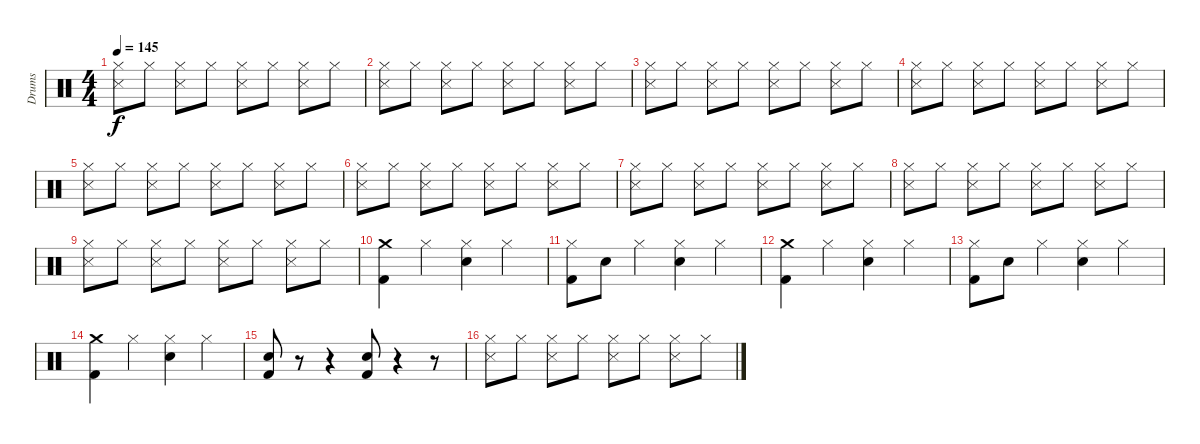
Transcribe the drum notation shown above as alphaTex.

\track ("Drums" "Drums") {instrument percussion}
\staff {score}
\articulation defaults
\ts (4 4)
\tempo 145
\clef neutral
\ks c
("Hi-Hat (closed)" "Snare (side stick) 3").8{dy f} "Hi-Hat (closed)".8 ("Hi-Hat (closed)" "Snare (side stick) 3").8 "Hi-Hat (closed)".8 ("Hi-Hat (closed)" "Snare (side stick) 3").8 "Hi-Hat (closed)".8 ("Hi-Hat (closed)" "Snare (side stick) 3").8 "Hi-Hat (closed)".8 |
("Hi-Hat (closed)" "Snare (side stick) 3").8 "Hi-Hat (closed)".8 ("Hi-Hat (closed)" "Snare (side stick) 3").8 "Hi-Hat (closed)".8 ("Hi-Hat (closed)" "Snare (side stick) 3").8 "Hi-Hat (closed)".8 ("Hi-Hat (closed)" "Snare (side stick) 3").8 "Hi-Hat (closed)".8 |
("Hi-Hat (closed)" "Snare (side stick) 3").8 "Hi-Hat (closed)".8 ("Hi-Hat (closed)" "Snare (side stick) 3").8 "Hi-Hat (closed)".8 ("Hi-Hat (closed)" "Snare (side stick) 3").8 "Hi-Hat (closed)".8 ("Hi-Hat (closed)" "Snare (side stick) 3").8 "Hi-Hat (closed)".8 |
("Hi-Hat (closed)" "Snare (side stick) 3").8 "Hi-Hat (closed)".8 ("Hi-Hat (closed)" "Snare (side stick) 3").8 "Hi-Hat (closed)".8 ("Hi-Hat (closed)" "Snare (side stick) 3").8 "Hi-Hat (closed)".8 ("Hi-Hat (closed)" "Snare (side stick) 3").8 "Hi-Hat (closed)".8 |
("Hi-Hat (closed)" "Snare (side stick) 3").8 "Hi-Hat (closed)".8 ("Hi-Hat (closed)" "Snare (side stick) 3").8 "Hi-Hat (closed)".8 ("Hi-Hat (closed)" "Snare (side stick) 3").8 "Hi-Hat (closed)".8 ("Hi-Hat (closed)" "Snare (side stick) 3").8 "Hi-Hat (closed)".8 |
("Hi-Hat (closed)" "Snare (side stick) 3").8 "Hi-Hat (closed)".8 ("Hi-Hat (closed)" "Snare (side stick) 3").8 "Hi-Hat (closed)".8 ("Hi-Hat (closed)" "Snare (side stick) 3").8 "Hi-Hat (closed)".8 ("Hi-Hat (closed)" "Snare (side stick) 3").8 "Hi-Hat (closed)".8 |
("Hi-Hat (closed)" "Snare (side stick) 3").8 "Hi-Hat (closed)".8 ("Hi-Hat (closed)" "Snare (side stick) 3").8 "Hi-Hat (closed)".8 ("Hi-Hat (closed)" "Snare (side stick) 3").8 "Hi-Hat (closed)".8 ("Hi-Hat (closed)" "Snare (side stick) 3").8 "Hi-Hat (closed)".8 |
("Hi-Hat (closed)" "Snare (side stick) 3").8 "Hi-Hat (closed)".8 ("Hi-Hat (closed)" "Snare (side stick) 3").8 "Hi-Hat (closed)".8 ("Hi-Hat (closed)" "Snare (side stick) 3").8 "Hi-Hat (closed)".8 ("Hi-Hat (closed)" "Snare (side stick) 3").8 "Hi-Hat (closed)".8 |
("Hi-Hat (closed)" "Snare (side stick) 3").8 "Hi-Hat (closed)".8 ("Hi-Hat (closed)" "Snare (side stick) 3").8 "Hi-Hat (closed)".8 ("Hi-Hat (closed)" "Snare (side stick) 3").8 "Hi-Hat (closed)".8 ("Hi-Hat (closed)" "Snare (side stick) 3").8 "Hi-Hat (closed)".8 |
("Crash medium (hit)" "Kick (hit) 2").4 "Hi-Hat (closed)".4 ("Hi-Hat (closed)" "Snare (hit) 2").4 "Hi-Hat (closed)".4 |
("Hi-Hat (closed)" "Kick (hit) 2").8 "Snare (hit) 2".8 "Hi-Hat (closed)".4 ("Hi-Hat (closed)" "Snare (hit) 2").4 "Hi-Hat (closed)".4 |
("Crash medium (hit)" "Kick (hit) 2").4 "Hi-Hat (closed)".4 ("Hi-Hat (closed)" "Snare (hit) 2").4 "Hi-Hat (closed)".4 |
("Hi-Hat (closed)" "Kick (hit) 2").8 "Snare (hit) 2".8 "Hi-Hat (closed)".4 ("Hi-Hat (closed)" "Snare (hit) 2").4 "Hi-Hat (closed)".4 |
("Crash medium (hit)" "Kick (hit) 2").4 "Hi-Hat (closed)".4 ("Hi-Hat (closed)" "Snare (hit) 2").4 "Hi-Hat (closed)".4 |
("Snare (hit) 2" "Kick (hit) 2").8 r.8 r.4 ("Snare (hit) 2" "Kick (hit) 2").8 r.4 r.8 |
("Hi-Hat (closed)" "Snare (side stick) 3").8 "Hi-Hat (closed)".8 ("Hi-Hat (closed)" "Snare (side stick) 3").8 "Hi-Hat (closed)".8 ("Hi-Hat (closed)" "Snare (side stick) 3").8 "Hi-Hat (closed)".8 ("Hi-Hat (closed)" "Snare (side stick) 3").8 "Hi-Hat (closed)".8
